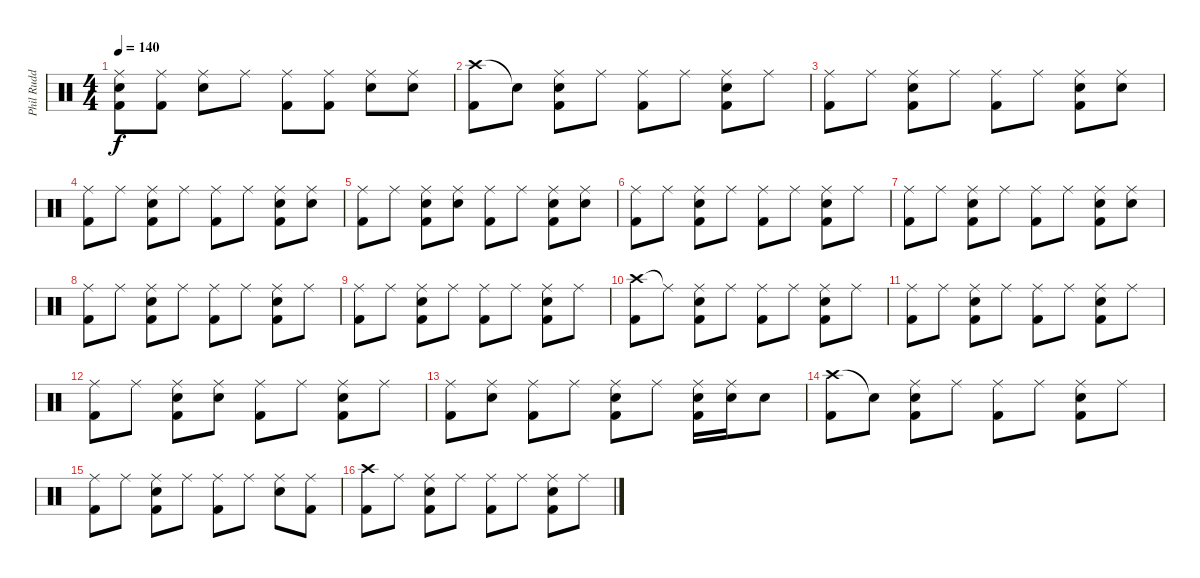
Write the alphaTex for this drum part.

\track ("Phil Rudd" "Phil Rudd") {instrument percussion}
\staff {score}
\articulation defaults
\ts (4 4)
\tempo 140
\clef neutral
\ks c
("Ride (middle)" "Electric Snare (hit)" "Kick (hit) 2").8{dy f} ("Ride (middle)" "Kick (hit) 2").8 ("Ride (middle)" "Electric Snare (hit)").8 "Ride (middle)".8 ("Ride (middle)" "Kick (hit) 2").8 ("Ride (middle)" "Kick (hit) 2").8 ("Ride (middle)" "Electric Snare (hit)").8 ("Ride (middle)" "Electric Snare (hit)").8 |
("Crash high (hit)" "Kick (hit) 2").8 "Snare (hit)"{t}.8 ("Ride (middle)" "Electric Snare (hit)" "Kick (hit) 2").8 "Ride (middle)".8 ("Ride (middle)" "Kick (hit) 2").8 "Ride (middle)".8 ("Ride (middle)" "Electric Snare (hit)" "Kick (hit) 2").8 "Ride (middle)".8 |
("Ride (middle)" "Kick (hit) 2").8 "Ride (middle)".8 ("Ride (middle)" "Electric Snare (hit)" "Kick (hit) 2").8 "Ride (middle)".8 ("Ride (middle)" "Kick (hit) 2").8 "Ride (middle)".8 ("Ride (middle)" "Electric Snare (hit)" "Kick (hit) 2").8 ("Ride (middle)" "Electric Snare (hit)").8 |
("Ride (middle)" "Kick (hit) 2").8 "Ride (middle)".8 ("Ride (middle)" "Electric Snare (hit)" "Kick (hit) 2").8 "Ride (middle)".8 ("Ride (middle)" "Kick (hit) 2").8 "Ride (middle)".8 ("Ride (middle)" "Electric Snare (hit)" "Kick (hit) 2").8 ("Ride (middle)" "Electric Snare (hit)").8 |
("Ride (middle)" "Kick (hit) 2").8 "Ride (middle)".8 ("Ride (middle)" "Electric Snare (hit)" "Kick (hit) 2").8 ("Ride (middle)" "Electric Snare (hit)").8 ("Ride (middle)" "Kick (hit) 2").8 "Ride (middle)".8 ("Ride (middle)" "Electric Snare (hit)" "Kick (hit) 2").8 ("Ride (middle)" "Electric Snare (hit)").8 |
("Ride (middle)" "Kick (hit) 2").8 "Ride (middle)".8 ("Ride (middle)" "Electric Snare (hit)" "Kick (hit) 2").8 "Ride (middle)".8 ("Ride (middle)" "Kick (hit) 2").8 "Ride (middle)".8 ("Ride (middle)" "Electric Snare (hit)" "Kick (hit) 2").8 "Ride (middle)".8 |
("Ride (middle)" "Kick (hit) 2").8 "Ride (middle)".8 ("Ride (middle)" "Electric Snare (hit)" "Kick (hit) 2").8 "Ride (middle)".8 ("Ride (middle)" "Kick (hit) 2").8 "Ride (middle)".8 ("Ride (middle)" "Electric Snare (hit)" "Kick (hit) 2").8 ("Ride (middle)" "Electric Snare (hit)").8 |
("Ride (middle)" "Kick (hit) 2").8 "Ride (middle)".8 ("Ride (middle)" "Electric Snare (hit)" "Kick (hit) 2").8 "Ride (middle)".8 ("Ride (middle)" "Kick (hit) 2").8 "Ride (middle)".8 ("Ride (middle)" "Electric Snare (hit)" "Kick (hit) 2").8 "Ride (middle)".8 |
("Ride (middle)" "Kick (hit) 2").8 "Ride (middle)".8 ("Ride (middle)" "Electric Snare (hit)" "Kick (hit) 2").8 "Ride (middle)".8 ("Ride (middle)" "Kick (hit) 2").8 "Ride (middle)".8 ("Ride (middle)" "Electric Snare (hit)" "Kick (hit) 2").8 "Ride (middle)".8 |
("Crash high (hit)" "Kick (hit) 2").8 "Ride (middle)"{t}.8 ("Ride (middle)" "Electric Snare (hit)" "Kick (hit) 2").8 "Ride (middle)".8 ("Ride (middle)" "Kick (hit) 2").8 "Ride (middle)".8 ("Ride (middle)" "Electric Snare (hit)" "Kick (hit) 2").8 "Ride (middle)".8 |
("Ride (middle)" "Kick (hit) 2").8 "Ride (middle)".8 ("Ride (middle)" "Electric Snare (hit)" "Kick (hit) 2").8 "Ride (middle)".8 ("Ride (middle)" "Kick (hit) 2").8 "Ride (middle)".8 ("Ride (middle)" "Electric Snare (hit)" "Kick (hit) 2").8 "Ride (middle)".8 |
("Ride (middle)" "Kick (hit) 2").8 "Ride (middle)".8 ("Ride (middle)" "Electric Snare (hit)" "Kick (hit) 2").8 ("Ride (middle)" "Electric Snare (hit)").8 ("Ride (middle)" "Kick (hit) 2").8 "Ride (middle)".8 ("Ride (middle)" "Electric Snare (hit)" "Kick (hit) 2").8 "Ride (middle)".8 |
("Ride (middle)" "Kick (hit) 2").8 ("Ride (middle)" "Electric Snare (hit)").8 ("Ride (middle)" "Kick (hit) 2").8 "Ride (middle)".8 ("Ride (middle)" "Electric Snare (hit)" "Kick (hit) 2").8 "Ride (middle)".8 ("Ride (middle)" "Electric Snare (hit)" "Kick (hit) 2").16 ("Ride (middle)" "Electric Snare (hit)").16 "Electric Snare (hit)".8 |
("Crash high (hit)" "Kick (hit) 2").8 "Snare (hit)"{t}.8 ("Ride (middle)" "Electric Snare (hit)" "Kick (hit) 2").8 "Ride (middle)".8 ("Ride (middle)" "Kick (hit) 2").8 "Ride (middle)".8 ("Ride (middle)" "Electric Snare (hit)" "Kick (hit) 2").8 "Ride (middle)".8 |
("Ride (middle)" "Kick (hit) 2").8 "Ride (middle)".8 ("Ride (middle)" "Electric Snare (hit)" "Kick (hit) 2").8 "Ride (middle)".8 ("Ride (middle)" "Kick (hit) 2").8 "Ride (middle)".8 ("Ride (middle)" "Electric Snare (hit)").8 ("Ride (middle)" "Kick (hit) 2").8 |
("Crash high (hit)" "Kick (hit) 2").8 "Ride (middle)".8 ("Ride (middle)" "Electric Snare (hit)" "Kick (hit) 2").8 "Ride (middle)".8 ("Ride (middle)" "Kick (hit) 2").8 "Ride (middle)".8 ("Ride (middle)" "Electric Snare (hit)" "Kick (hit) 2").8 "Ride (middle)".8
